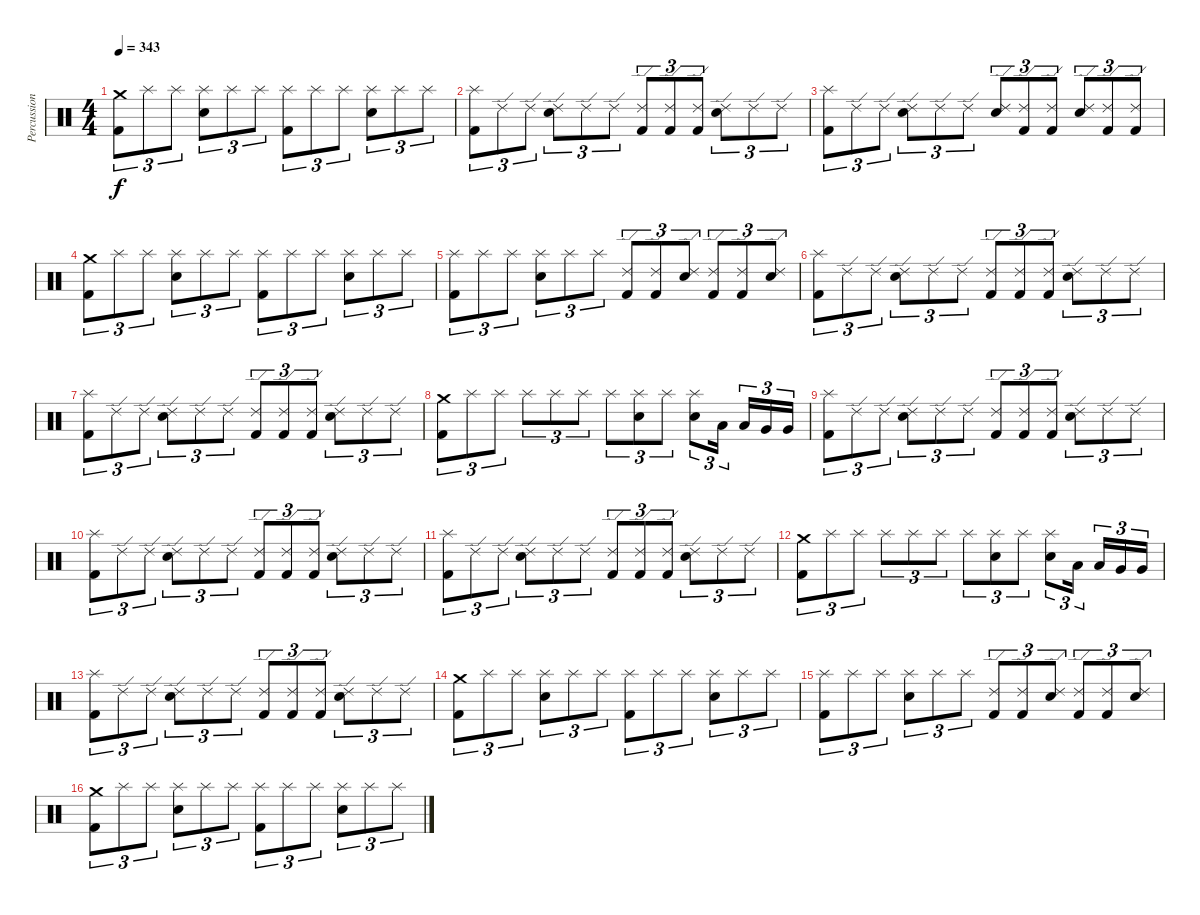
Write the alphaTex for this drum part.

\track ("Percussion" "Percussion") {instrument percussion}
\staff {score}
\articulation defaults
\ts (4 4)
\tempo 343
\clef neutral
\ks c
("Crash medium (hit)" "Kick (hit) 2").8{tu (3 2) dy f} "Splash (hit)".8{tu (3 2)} "Splash (hit)".8{tu (3 2)} ("Splash (hit)" "Snare (hit) 2").8{tu (3 2)} "Splash (hit)".8{tu (3 2)} "Splash (hit)".8{tu (3 2)} ("Splash (hit)" "Kick (hit) 2").8{tu (3 2)} "Splash (hit)".8{tu (3 2)} "Splash (hit)".8{tu (3 2)} ("Splash (hit)" "Snare (hit) 2").8{tu (3 2)} "Splash (hit)".8{tu (3 2)} "Splash (hit)".8{tu (3 2)} |
("Splash (hit)" "Kick (hit) 2").8{tu (3 2)} "Ride (edge) 2".8{tu (3 2)} "Ride (edge) 2".8{tu (3 2)} ("Ride (edge) 2" "Snare (hit) 2").8{tu (3 2)} "Ride (edge) 2".8{tu (3 2)} "Ride (edge) 2".8{tu (3 2)} ("Ride (edge) 2" "Kick (hit) 2").8{tu (3 2)} ("Ride (edge) 2" "Kick (hit) 2").8{tu (3 2)} ("Ride (edge) 2" "Kick (hit) 2").8{tu (3 2)} ("Ride (edge) 2" "Snare (hit) 2").8{tu (3 2)} "Ride (edge) 2".8{tu (3 2)} "Ride (edge) 2".8{tu (3 2)} |
("Splash (hit)" "Kick (hit) 2").8{tu (3 2)} "Ride (edge) 2".8{tu (3 2)} "Ride (edge) 2".8{tu (3 2)} ("Ride (edge) 2" "Snare (hit) 2").8{tu (3 2)} "Ride (edge) 2".8{tu (3 2)} "Ride (edge) 2".8{tu (3 2)} ("Ride (edge) 2" "Snare (hit) 2").8{tu (3 2)} ("Ride (edge) 2" "Kick (hit) 2").8{tu (3 2)} ("Ride (edge) 2" "Kick (hit) 2").8{tu (3 2)} ("Ride (edge) 2" "Snare (hit) 2").8{tu (3 2)} ("Ride (edge) 2" "Kick (hit) 2").8{tu (3 2)} ("Ride (edge) 2" "Kick (hit) 2").8{tu (3 2)} |
("Crash medium (hit)" "Kick (hit) 2").8{tu (3 2)} "Splash (hit)".8{tu (3 2)} "Splash (hit)".8{tu (3 2)} ("Splash (hit)" "Snare (hit) 2").8{tu (3 2)} "Splash (hit)".8{tu (3 2)} "Splash (hit)".8{tu (3 2)} ("Splash (hit)" "Kick (hit) 2").8{tu (3 2)} "Splash (hit)".8{tu (3 2)} "Splash (hit)".8{tu (3 2)} ("Splash (hit)" "Snare (hit) 2").8{tu (3 2)} "Splash (hit)".8{tu (3 2)} "Splash (hit)".8{tu (3 2)} |
("Splash (hit)" "Kick (hit) 2").8{tu (3 2)} "Splash (hit)".8{tu (3 2)} "Splash (hit)".8{tu (3 2)} ("Splash (hit)" "Snare (hit) 2").8{tu (3 2)} "Splash (hit)".8{tu (3 2)} "Splash (hit)".8{tu (3 2)} ("Ride (edge) 2" "Kick (hit) 2").8{tu (3 2)} ("Ride (edge) 2" "Kick (hit) 2").8{tu (3 2)} ("Ride (edge) 2" "Snare (hit) 2").8{tu (3 2)} ("Ride (edge) 2" "Kick (hit) 2").8{tu (3 2)} ("Ride (edge) 2" "Kick (hit) 2").8{tu (3 2)} ("Ride (edge) 2" "Snare (hit) 2").8{tu (3 2)} |
("Splash (hit)" "Kick (hit) 2").8{tu (3 2)} "Ride (edge) 2".8{tu (3 2)} "Ride (edge) 2".8{tu (3 2)} ("Ride (edge) 2" "Snare (hit) 2").8{tu (3 2)} "Ride (edge) 2".8{tu (3 2)} "Ride (edge) 2".8{tu (3 2)} ("Ride (edge) 2" "Kick (hit) 2").8{tu (3 2)} ("Ride (edge) 2" "Kick (hit) 2").8{tu (3 2)} ("Ride (edge) 2" "Kick (hit) 2").8{tu (3 2)} ("Ride (edge) 2" "Snare (hit) 2").8{tu (3 2)} "Ride (edge) 2".8{tu (3 2)} "Ride (edge) 2".8{tu (3 2)} |
("Splash (hit)" "Kick (hit) 2").8{tu (3 2)} "Ride (edge) 2".8{tu (3 2)} "Ride (edge) 2".8{tu (3 2)} ("Ride (edge) 2" "Snare (hit) 2").8{tu (3 2)} "Ride (edge) 2".8{tu (3 2)} "Ride (edge) 2".8{tu (3 2)} ("Ride (edge) 2" "Kick (hit) 2").8{tu (3 2)} ("Ride (edge) 2" "Kick (hit) 2").8{tu (3 2)} ("Ride (edge) 2" "Kick (hit) 2").8{tu (3 2)} ("Ride (edge) 2" "Snare (hit) 2").8{tu (3 2)} "Ride (edge) 2".8{tu (3 2)} "Ride (edge) 2".8{tu (3 2)} |
("Crash medium (hit)" "Kick (hit) 2").8{tu (3 2)} "Splash (hit)".8{tu (3 2)} "Splash (hit)".8{tu (3 2)} "Splash (hit)".8{tu (3 2)} "Splash (hit)".8{tu (3 2)} "Splash (hit)".8{tu (3 2)} "Splash (hit)".8{tu (3 2)} ("Splash (hit)" "Snare (hit) 2").8{tu (3 2)} "Splash (hit)".8{tu (3 2)} ("Splash (hit)" "Snare (hit) 2").8{tu (3 2)} "Low Tom (hit)".16{tu (3 2)} "Low Tom (hit)".16{tu (3 2)} "Very Low Tom (hit)".16{tu (3 2)} "Very Low Tom (hit)".16{tu (3 2)} |
("Splash (hit)" "Kick (hit) 2").8{tu (3 2)} "Ride (edge) 2".8{tu (3 2)} "Ride (edge) 2".8{tu (3 2)} ("Ride (edge) 2" "Snare (hit) 2").8{tu (3 2)} "Ride (edge) 2".8{tu (3 2)} "Ride (edge) 2".8{tu (3 2)} ("Ride (edge) 2" "Kick (hit) 2").8{tu (3 2)} ("Ride (edge) 2" "Kick (hit) 2").8{tu (3 2)} ("Ride (edge) 2" "Kick (hit) 2").8{tu (3 2)} ("Ride (edge) 2" "Snare (hit) 2").8{tu (3 2)} "Ride (edge) 2".8{tu (3 2)} "Ride (edge) 2".8{tu (3 2)} |
("Splash (hit)" "Kick (hit) 2").8{tu (3 2)} "Ride (edge) 2".8{tu (3 2)} "Ride (edge) 2".8{tu (3 2)} ("Ride (edge) 2" "Snare (hit) 2").8{tu (3 2)} "Ride (edge) 2".8{tu (3 2)} "Ride (edge) 2".8{tu (3 2)} ("Ride (edge) 2" "Kick (hit) 2").8{tu (3 2)} ("Ride (edge) 2" "Kick (hit) 2").8{tu (3 2)} ("Ride (edge) 2" "Kick (hit) 2").8{tu (3 2)} ("Ride (edge) 2" "Snare (hit) 2").8{tu (3 2)} "Ride (edge) 2".8{tu (3 2)} "Ride (edge) 2".8{tu (3 2)} |
("Splash (hit)" "Kick (hit) 2").8{tu (3 2)} "Ride (edge) 2".8{tu (3 2)} "Ride (edge) 2".8{tu (3 2)} ("Ride (edge) 2" "Snare (hit) 2").8{tu (3 2)} "Ride (edge) 2".8{tu (3 2)} "Ride (edge) 2".8{tu (3 2)} ("Ride (edge) 2" "Kick (hit) 2").8{tu (3 2)} ("Ride (edge) 2" "Kick (hit) 2").8{tu (3 2)} ("Ride (edge) 2" "Kick (hit) 2").8{tu (3 2)} ("Ride (edge) 2" "Snare (hit) 2").8{tu (3 2)} "Ride (edge) 2".8{tu (3 2)} "Ride (edge) 2".8{tu (3 2)} |
("Crash medium (hit)" "Kick (hit) 2").8{tu (3 2)} "Splash (hit)".8{tu (3 2)} "Splash (hit)".8{tu (3 2)} "Splash (hit)".8{tu (3 2)} "Splash (hit)".8{tu (3 2)} "Splash (hit)".8{tu (3 2)} "Splash (hit)".8{tu (3 2)} ("Splash (hit)" "Snare (hit) 2").8{tu (3 2)} "Splash (hit)".8{tu (3 2)} ("Splash (hit)" "Snare (hit) 2").8{tu (3 2)} "Low Tom (hit)".16{tu (3 2)} "Low Tom (hit)".16{tu (3 2)} "Very Low Tom (hit)".16{tu (3 2)} "Very Low Tom (hit)".16{tu (3 2)} |
("Splash (hit)" "Kick (hit) 2").8{tu (3 2)} "Ride (edge) 2".8{tu (3 2)} "Ride (edge) 2".8{tu (3 2)} ("Ride (edge) 2" "Snare (hit) 2").8{tu (3 2)} "Ride (edge) 2".8{tu (3 2)} "Ride (edge) 2".8{tu (3 2)} ("Ride (edge) 2" "Kick (hit) 2").8{tu (3 2)} ("Ride (edge) 2" "Kick (hit) 2").8{tu (3 2)} ("Ride (edge) 2" "Kick (hit) 2").8{tu (3 2)} ("Ride (edge) 2" "Snare (hit) 2").8{tu (3 2)} "Ride (edge) 2".8{tu (3 2)} "Ride (edge) 2".8{tu (3 2)} |
("Crash medium (hit)" "Kick (hit) 2").8{tu (3 2)} "Splash (hit)".8{tu (3 2)} "Splash (hit)".8{tu (3 2)} ("Splash (hit)" "Snare (hit) 2").8{tu (3 2)} "Splash (hit)".8{tu (3 2)} "Splash (hit)".8{tu (3 2)} ("Splash (hit)" "Kick (hit) 2").8{tu (3 2)} "Splash (hit)".8{tu (3 2)} "Splash (hit)".8{tu (3 2)} ("Splash (hit)" "Snare (hit) 2").8{tu (3 2)} "Splash (hit)".8{tu (3 2)} "Splash (hit)".8{tu (3 2)} |
("Splash (hit)" "Kick (hit) 2").8{tu (3 2)} "Splash (hit)".8{tu (3 2)} "Splash (hit)".8{tu (3 2)} ("Splash (hit)" "Snare (hit) 2").8{tu (3 2)} "Splash (hit)".8{tu (3 2)} "Splash (hit)".8{tu (3 2)} ("Ride (edge) 2" "Kick (hit) 2").8{tu (3 2)} ("Ride (edge) 2" "Kick (hit) 2").8{tu (3 2)} ("Ride (edge) 2" "Snare (hit) 2").8{tu (3 2)} ("Ride (edge) 2" "Kick (hit) 2").8{tu (3 2)} ("Ride (edge) 2" "Kick (hit) 2").8{tu (3 2)} ("Ride (edge) 2" "Snare (hit) 2").8{tu (3 2)} |
("Crash medium (hit)" "Kick (hit) 2").8{tu (3 2)} "Splash (hit)".8{tu (3 2)} "Splash (hit)".8{tu (3 2)} ("Splash (hit)" "Snare (hit) 2").8{tu (3 2)} "Splash (hit)".8{tu (3 2)} "Splash (hit)".8{tu (3 2)} ("Splash (hit)" "Kick (hit) 2").8{tu (3 2)} "Splash (hit)".8{tu (3 2)} "Splash (hit)".8{tu (3 2)} ("Splash (hit)" "Snare (hit) 2").8{tu (3 2)} "Splash (hit)".8{tu (3 2)} "Splash (hit)".8{tu (3 2)}
